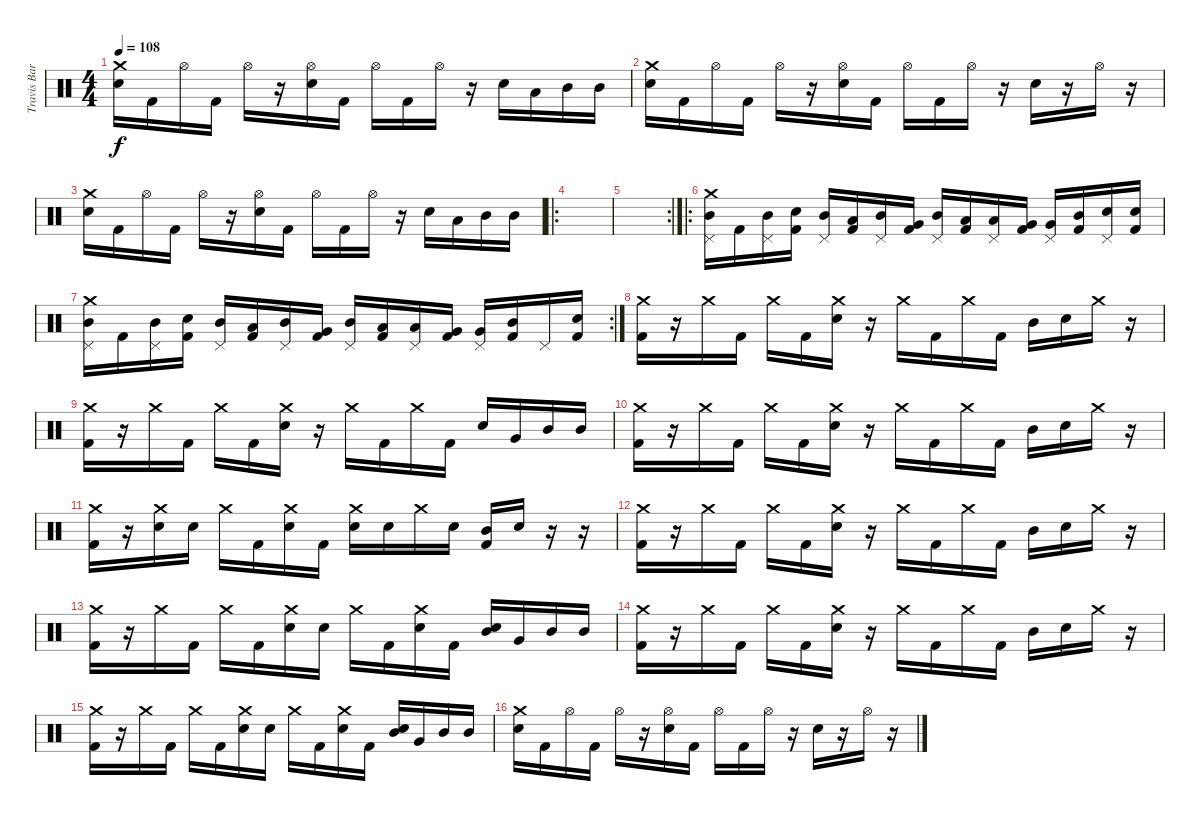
\track ("Travis Barker" "Travis Bar") {instrument percussion}
\staff {score}
\articulation defaults
\ts (4 4)
\tempo 108
\clef neutral
\ks c
("Crash medium (hit)" "Electric Snare (hit)").16{dy f} "Kick (hit) 2".16 "Hi-Hat (open)".16 "Kick (hit) 2".16 "Hi-Hat (open)".16 r.16 ("Hi-Hat (open)" "Electric Snare (hit)").16 "Kick (hit) 2".16 "Hi-Hat (open)".16 "Kick (hit) 2".16 "Hi-Hat (open)".16 r.16 "Electric Snare (hit)".16 "Low Floor Tom (hit)".16 "Mid Tom (hit)".16 "Mid Tom (hit)".16 |
("Crash medium (hit)" "Electric Snare (hit)").16 "Kick (hit) 2".16 "Hi-Hat (open)".16 "Kick (hit) 2".16 "Hi-Hat (open)".16 r.16 ("Hi-Hat (open)" "Electric Snare (hit)").16 "Kick (hit) 2".16 "Hi-Hat (open)".16 "Kick (hit) 2".16 "Hi-Hat (open)".16 r.16 "Snare (hit) 2".16 r.16 "Hi-Hat (open)".16 r.16 |
("Crash medium (hit)" "Electric Snare (hit)").16 "Kick (hit) 2".16 "Hi-Hat (open)".16 "Kick (hit) 2".16 "Hi-Hat (open)".16 r.16 ("Hi-Hat (open)" "Electric Snare (hit)").16 "Kick (hit) 2".16 "Hi-Hat (open)".16 "Kick (hit) 2".16 "Hi-Hat (open)".16 r.16 "Electric Snare (hit)".16 "Low Floor Tom (hit)".16 "Mid Tom (hit)".16 "Mid Tom (hit)".16 |
\ro
|
\rc 2
|
\ro
("Crash medium (hit)" "Pedal Hi-Hat (hit)" "Mid Tom (hit)").16 "Kick (hit) 2".16 ("Pedal Hi-Hat (hit)" "Mid Tom (hit)").16 ("Kick (hit) 2" "Snare (hit) 2").16 ("Pedal Hi-Hat (hit)" "Mid Tom (hit)").16 ("Low Floor Tom (hit)" "Kick (hit) 2").16 ("Pedal Hi-Hat (hit)" "Mid Tom (hit)").16 ("Very Low Tom (hit)" "Kick (hit) 2").16 ("Pedal Hi-Hat (hit)" "Mid Tom (hit)").16 ("Low Floor Tom (hit)" "Kick (hit) 2").16 ("Low Floor Tom (hit)" "Pedal Hi-Hat (hit)").16 ("Very Low Tom (hit)" "Kick (hit) 2").16 ("Very Low Tom (hit)" "Pedal Hi-Hat (hit)").16 ("Kick (hit) 2" "Mid Tom (hit)").16 ("Pedal Hi-Hat (hit)" "Snare (hit) 2").16 ("Kick (hit) 2" "Snare (hit) 2").16 |
\rc 2
("Crash medium (hit)" "Pedal Hi-Hat (hit)" "Mid Tom (hit)").16 "Kick (hit) 2".16 ("Pedal Hi-Hat (hit)" "Mid Tom (hit)").16 ("Kick (hit) 2" "Snare (hit) 2").16 ("Pedal Hi-Hat (hit)" "Mid Tom (hit)").16 ("Low Floor Tom (hit)" "Kick (hit) 2").16 ("Pedal Hi-Hat (hit)" "Mid Tom (hit)").16 ("Very Low Tom (hit)" "Kick (hit) 2").16 ("Pedal Hi-Hat (hit)" "Mid Tom (hit)").16 ("Low Floor Tom (hit)" "Kick (hit) 2").16 ("Low Floor Tom (hit)" "Pedal Hi-Hat (hit)").16 ("Very Low Tom (hit)" "Kick (hit) 2").16 ("Very Low Tom (hit)" "Pedal Hi-Hat (hit)").16 ("Kick (hit) 2" "Mid Tom (hit)").16 "Pedal Hi-Hat (hit)".16 ("Kick (hit) 2" "Snare (hit) 2").16 |
("Crash medium (hit)" "Kick (hit) 2").16 r.16 "Crash medium (hit)".16 "Kick (hit) 2".16 "Crash medium (hit)".16 "Kick (hit) 2".16 ("Crash medium (hit)" "Snare (hit) 2").16 r.16 "Crash medium (hit)".16 "Kick (hit) 2".16 "Crash medium (hit)".16 "Kick (hit) 2".16 "Mid Tom (hit)".16 "Snare (hit) 2".16 "Crash medium (hit)".16 r.16 |
("Crash medium (hit)" "Kick (hit) 2").16 r.16 "Crash medium (hit)".16 "Kick (hit) 2".16 "Crash medium (hit)".16 "Kick (hit) 2".16 ("Crash medium (hit)" "Snare (hit) 2").16 r.16 "Crash medium (hit)".16 "Kick (hit) 2".16 "Crash medium (hit)".16 "Kick (hit) 2".16 "Snare (hit) 2".16 "Very Low Tom (hit)".16 "Mid Tom (hit)".16 "Mid Tom (hit)".16 |
("Crash medium (hit)" "Kick (hit) 2").16 r.16 "Crash medium (hit)".16 "Kick (hit) 2".16 "Crash medium (hit)".16 "Kick (hit) 2".16 ("Crash medium (hit)" "Snare (hit) 2").16 r.16 "Crash medium (hit)".16 "Kick (hit) 2".16 "Crash medium (hit)".16 "Kick (hit) 2".16 "Mid Tom (hit)".16 "Snare (hit) 2".16 "Crash medium (hit)".16 r.16 |
("Crash medium (hit)" "Kick (hit) 2").16 r.16 ("Crash medium (hit)" "Snare (hit) 2").16 "Snare (hit) 2".16 "Crash medium (hit)".16 "Kick (hit) 2".16 ("Crash medium (hit)" "Snare (hit) 2").16 "Kick (hit) 2".16 ("Crash medium (hit)" "Snare (hit) 2").16 "Snare (hit) 2".16 "Crash medium (hit)".16 "Snare (hit) 2".16 ("Mid Tom (hit)" "Kick (hit) 2").16 "Snare (hit) 2".16 r.16 r.16 |
("Crash medium (hit)" "Kick (hit) 2").16 r.16 "Crash medium (hit)".16 "Kick (hit) 2".16 "Crash medium (hit)".16 "Kick (hit) 2".16 ("Crash medium (hit)" "Snare (hit) 2").16 r.16 "Crash medium (hit)".16 "Kick (hit) 2".16 "Crash medium (hit)".16 "Kick (hit) 2".16 "Mid Tom (hit)".16 "Snare (hit) 2".16 "Crash medium (hit)".16 r.16 |
("Crash medium (hit)" "Kick (hit) 2").16 r.16 "Crash medium (hit)".16 "Kick (hit) 2".16 "Crash medium (hit)".16 "Kick (hit) 2".16 ("Crash medium (hit)" "Snare (hit) 2").16 "Snare (hit) 2".16 "Crash medium (hit)".16 "Kick (hit) 2".16 ("Crash medium (hit)" "Snare (hit) 2").16 "Kick (hit) 2".16 ("Snare (hit) 2" "Mid Tom (hit)").16 "Very Low Tom (hit)".16 "Mid Tom (hit)".16 "Mid Tom (hit)".16 |
("Crash medium (hit)" "Kick (hit) 2").16 r.16 "Crash medium (hit)".16 "Kick (hit) 2".16 "Crash medium (hit)".16 "Kick (hit) 2".16 ("Crash medium (hit)" "Snare (hit) 2").16 r.16 "Crash medium (hit)".16 "Kick (hit) 2".16 "Crash medium (hit)".16 "Kick (hit) 2".16 "Mid Tom (hit)".16 "Snare (hit) 2".16 "Crash medium (hit)".16 r.16 |
("Crash medium (hit)" "Kick (hit) 2").16 r.16 "Crash medium (hit)".16 "Kick (hit) 2".16 "Crash medium (hit)".16 "Kick (hit) 2".16 ("Crash medium (hit)" "Snare (hit) 2").16 "Snare (hit) 2".16 "Crash medium (hit)".16 "Kick (hit) 2".16 ("Crash medium (hit)" "Snare (hit) 2").16 "Kick (hit) 2".16 ("Snare (hit) 2" "Mid Tom (hit)").16 "Very Low Tom (hit)".16 "Mid Tom (hit)".16 "Mid Tom (hit)".16 |
("Crash medium (hit)" "Electric Snare (hit)").16 "Kick (hit) 2".16 "Hi-Hat (open)".16 "Kick (hit) 2".16 "Hi-Hat (open)".16 r.16 ("Hi-Hat (open)" "Electric Snare (hit)").16 "Kick (hit) 2".16 "Hi-Hat (open)".16 "Kick (hit) 2".16 "Hi-Hat (open)".16 r.16 "Snare (hit) 2".16 r.16 "Hi-Hat (open)".16 r.16
